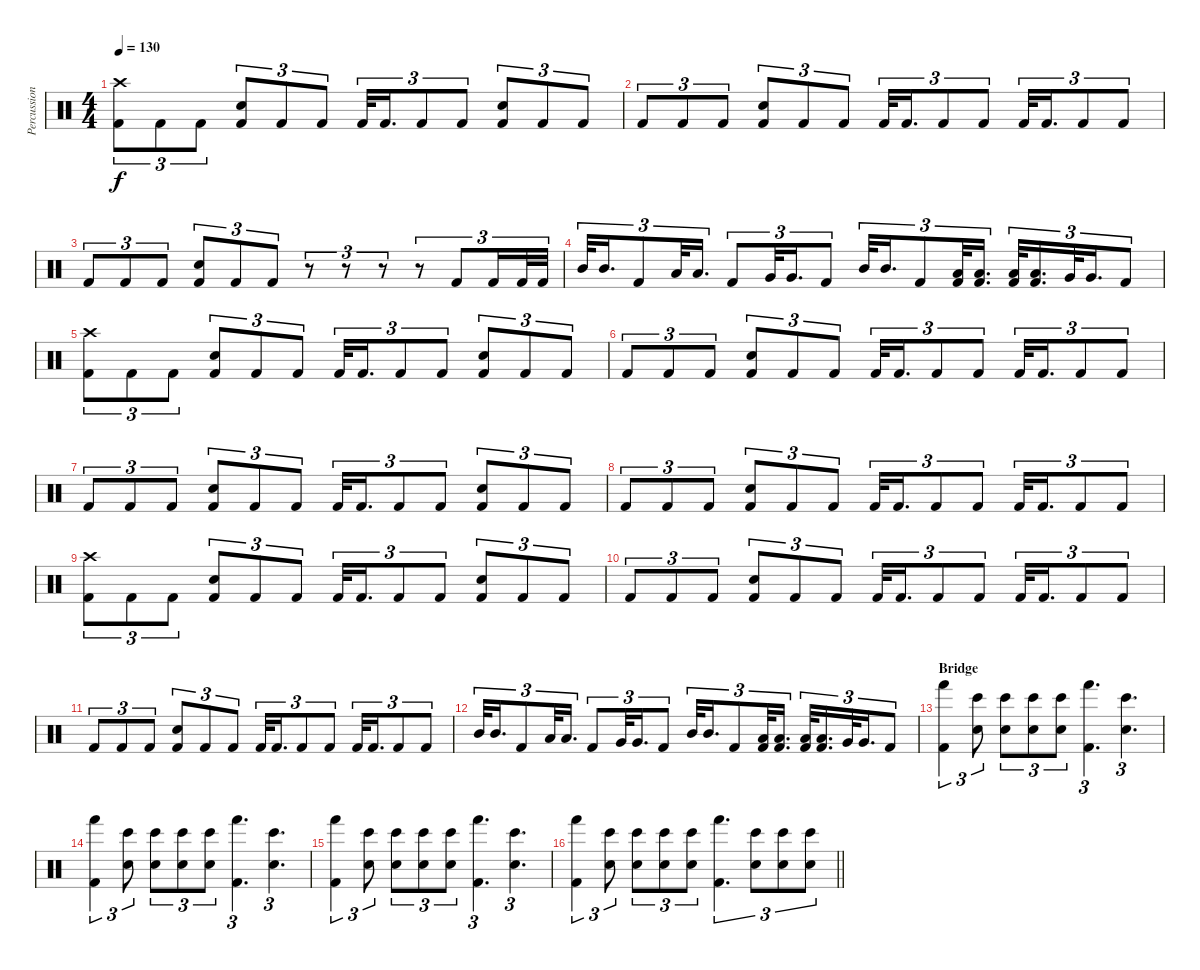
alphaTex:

\track ("Percussions" "Percussion") {instrument percussion}
\staff {score}
\articulation defaults
\ts (4 4)
\tempo 130
\clef neutral
\ks c
("Crash high (hit)" "Kick (hit) 2").8{tu (3 2) dy f} "Kick (hit) 2".8{tu (3 2)} "Kick (hit) 2".8{tu (3 2)} ("Electric Snare (hit)" "Kick (hit) 2").8{tu (3 2)} "Kick (hit) 2".8{tu (3 2)} "Kick (hit) 2".8{tu (3 2)} "Kick (hit) 2".32{tu (3 2)} "Kick (hit) 2".16{d tu (3 2)} "Kick (hit) 2".8{tu (3 2)} "Kick (hit) 2".8{tu (3 2)} ("Electric Snare (hit)" "Kick (hit) 2").8{tu (3 2)} "Kick (hit) 2".8{tu (3 2)} "Kick (hit) 2".8{tu (3 2)} |
"Kick (hit) 2".8{tu (3 2)} "Kick (hit) 2".8{tu (3 2)} "Kick (hit) 2".8{tu (3 2)} ("Electric Snare (hit)" "Kick (hit) 2").8{tu (3 2)} "Kick (hit) 2".8{tu (3 2)} "Kick (hit) 2".8{tu (3 2)} "Kick (hit) 2".32{tu (3 2)} "Kick (hit) 2".16{d tu (3 2)} "Kick (hit) 2".8{tu (3 2)} "Kick (hit) 2".8{tu (3 2)} "Kick (hit) 2".32{tu (3 2)} "Kick (hit) 2".16{d tu (3 2)} "Kick (hit) 2".8{tu (3 2)} "Kick (hit) 2".8{tu (3 2)} |
"Kick (hit) 2".8{tu (3 2)} "Kick (hit) 2".8{tu (3 2)} "Kick (hit) 2".8{tu (3 2)} ("Electric Snare (hit)" "Kick (hit) 2").8{tu (3 2)} "Kick (hit) 2".8{tu (3 2)} "Kick (hit) 2".8{tu (3 2)} r.8{tu (3 2)} r.8{tu (3 2)} r.8{tu (3 2)} r.8{tu (3 2)} "Kick (hit) 2".8{tu (3 2)} "Kick (hit) 2".16{tu (3 2)} "Kick (hit) 2".32{tu (3 2)} "Kick (hit) 2".32{tu (3 2)} |
"Mid Tom (hit)".32{tu (3 2)} "Mid Tom (hit)".16{d tu (3 2)} "Kick (hit) 2".8{tu (3 2)} "Low Tom (hit)".32{tu (3 2)} "Low Tom (hit)".16{d tu (3 2)} "Kick (hit) 2".8{tu (3 2)} "Very Low Tom (hit)".32{tu (3 2)} "Very Low Tom (hit)".16{d tu (3 2)} "Kick (hit) 2".8{tu (3 2)} "Mid Tom (hit)".32{tu (3 2)} "Mid Tom (hit)".16{d tu (3 2)} "Kick (hit) 2".8{tu (3 2)} ("Low Tom (hit)" "Kick (hit) 2").32{tu (3 2)} ("Low Tom (hit)" "Kick (hit) 2").16{d tu (3 2)} ("Low Tom (hit)" "Kick (hit) 2").32{tu (3 2)} ("Low Tom (hit)" "Kick (hit) 2").16{d tu (3 2)} "Very Low Tom (hit)".32{tu (3 2)} "Very Low Tom (hit)".16{d tu (3 2)} "Kick (hit) 2".8{tu (3 2)} |
("Crash high (hit)" "Kick (hit) 2").8{tu (3 2)} "Kick (hit) 2".8{tu (3 2)} "Kick (hit) 2".8{tu (3 2)} ("Electric Snare (hit)" "Kick (hit) 2").8{tu (3 2)} "Kick (hit) 2".8{tu (3 2)} "Kick (hit) 2".8{tu (3 2)} "Kick (hit) 2".32{tu (3 2)} "Kick (hit) 2".16{d tu (3 2)} "Kick (hit) 2".8{tu (3 2)} "Kick (hit) 2".8{tu (3 2)} ("Electric Snare (hit)" "Kick (hit) 2").8{tu (3 2)} "Kick (hit) 2".8{tu (3 2)} "Kick (hit) 2".8{tu (3 2)} |
"Kick (hit) 2".8{tu (3 2)} "Kick (hit) 2".8{tu (3 2)} "Kick (hit) 2".8{tu (3 2)} ("Electric Snare (hit)" "Kick (hit) 2").8{tu (3 2)} "Kick (hit) 2".8{tu (3 2)} "Kick (hit) 2".8{tu (3 2)} "Kick (hit) 2".32{tu (3 2)} "Kick (hit) 2".16{d tu (3 2)} "Kick (hit) 2".8{tu (3 2)} "Kick (hit) 2".8{tu (3 2)} "Kick (hit) 2".32{tu (3 2)} "Kick (hit) 2".16{d tu (3 2)} "Kick (hit) 2".8{tu (3 2)} "Kick (hit) 2".8{tu (3 2)} |
"Kick (hit) 2".8{tu (3 2)} "Kick (hit) 2".8{tu (3 2)} "Kick (hit) 2".8{tu (3 2)} ("Electric Snare (hit)" "Kick (hit) 2").8{tu (3 2)} "Kick (hit) 2".8{tu (3 2)} "Kick (hit) 2".8{tu (3 2)} "Kick (hit) 2".32{tu (3 2)} "Kick (hit) 2".16{d tu (3 2)} "Kick (hit) 2".8{tu (3 2)} "Kick (hit) 2".8{tu (3 2)} ("Electric Snare (hit)" "Kick (hit) 2").8{tu (3 2)} "Kick (hit) 2".8{tu (3 2)} "Kick (hit) 2".8{tu (3 2)} |
"Kick (hit) 2".8{tu (3 2)} "Kick (hit) 2".8{tu (3 2)} "Kick (hit) 2".8{tu (3 2)} ("Electric Snare (hit)" "Kick (hit) 2").8{tu (3 2)} "Kick (hit) 2".8{tu (3 2)} "Kick (hit) 2".8{tu (3 2)} "Kick (hit) 2".32{tu (3 2)} "Kick (hit) 2".16{d tu (3 2)} "Kick (hit) 2".8{tu (3 2)} "Kick (hit) 2".8{tu (3 2)} "Kick (hit) 2".32{tu (3 2)} "Kick (hit) 2".16{d tu (3 2)} "Kick (hit) 2".8{tu (3 2)} "Kick (hit) 2".8{tu (3 2)} |
("Crash high (hit)" "Kick (hit) 2").8{tu (3 2)} "Kick (hit) 2".8{tu (3 2)} "Kick (hit) 2".8{tu (3 2)} ("Electric Snare (hit)" "Kick (hit) 2").8{tu (3 2)} "Kick (hit) 2".8{tu (3 2)} "Kick (hit) 2".8{tu (3 2)} "Kick (hit) 2".32{tu (3 2)} "Kick (hit) 2".16{d tu (3 2)} "Kick (hit) 2".8{tu (3 2)} "Kick (hit) 2".8{tu (3 2)} ("Electric Snare (hit)" "Kick (hit) 2").8{tu (3 2)} "Kick (hit) 2".8{tu (3 2)} "Kick (hit) 2".8{tu (3 2)} |
"Kick (hit) 2".8{tu (3 2)} "Kick (hit) 2".8{tu (3 2)} "Kick (hit) 2".8{tu (3 2)} ("Electric Snare (hit)" "Kick (hit) 2").8{tu (3 2)} "Kick (hit) 2".8{tu (3 2)} "Kick (hit) 2".8{tu (3 2)} "Kick (hit) 2".32{tu (3 2)} "Kick (hit) 2".16{d tu (3 2)} "Kick (hit) 2".8{tu (3 2)} "Kick (hit) 2".8{tu (3 2)} "Kick (hit) 2".32{tu (3 2)} "Kick (hit) 2".16{d tu (3 2)} "Kick (hit) 2".8{tu (3 2)} "Kick (hit) 2".8{tu (3 2)} |
"Kick (hit) 2".8{tu (3 2)} "Kick (hit) 2".8{tu (3 2)} "Kick (hit) 2".8{tu (3 2)} ("Electric Snare (hit)" "Kick (hit) 2").8{tu (3 2)} "Kick (hit) 2".8{tu (3 2)} "Kick (hit) 2".8{tu (3 2)} "Kick (hit) 2".32{tu (3 2)} "Kick (hit) 2".16{d tu (3 2)} "Kick (hit) 2".8{tu (3 2)} "Kick (hit) 2".8{tu (3 2)} "Kick (hit) 2".32{tu (3 2)} "Kick (hit) 2".16{d tu (3 2)} "Kick (hit) 2".8{tu (3 2)} "Kick (hit) 2".8{tu (3 2)} |
"Mid Tom (hit)".32{tu (3 2)} "Mid Tom (hit)".16{d tu (3 2)} "Kick (hit) 2".8{tu (3 2)} "Low Tom (hit)".32{tu (3 2)} "Low Tom (hit)".16{d tu (3 2)} "Kick (hit) 2".8{tu (3 2)} "Very Low Tom (hit)".32{tu (3 2)} "Very Low Tom (hit)".16{d tu (3 2)} "Kick (hit) 2".8{tu (3 2)} "Mid Tom (hit)".32{tu (3 2)} "Mid Tom (hit)".16{d tu (3 2)} "Kick (hit) 2".8{tu (3 2)} ("Low Tom (hit)" "Kick (hit) 2").32{tu (3 2)} ("Low Tom (hit)" "Kick (hit) 2").16{d tu (3 2)} ("Low Tom (hit)" "Kick (hit) 2").32{tu (3 2)} ("Low Tom (hit)" "Kick (hit) 2").16{d tu (3 2)} "Very Low Tom (hit)".32{tu (3 2)} "Very Low Tom (hit)".16{d tu (3 2)} "Kick (hit) 2".8{tu (3 2)} |
\section ("" "Bridge")
("Hand (hit)" "Kick (hit) 2").4{tu (3 2)} ("Bongo High (hit)" "Electric Snare (hit)").8{tu (3 2)} ("Bongo High (hit)" "Electric Snare (hit)").8{tu (3 2)} ("Bongo High (hit)" "Electric Snare (hit)").8{tu (3 2)} ("Bongo High (hit)" "Electric Snare (hit)").8{tu (3 2)} ("Hand (hit)" "Kick (hit) 2").4{d tu (3 2)} ("Bongo High (hit)" "Electric Snare (hit)").4{d tu (3 2)} |
("Hand (hit)" "Kick (hit) 2").4{tu (3 2)} ("Bongo High (hit)" "Electric Snare (hit)").8{tu (3 2)} ("Bongo High (hit)" "Electric Snare (hit)").8{tu (3 2)} ("Bongo High (hit)" "Electric Snare (hit)").8{tu (3 2)} ("Bongo High (hit)" "Electric Snare (hit)").8{tu (3 2)} ("Hand (hit)" "Kick (hit) 2").4{d tu (3 2)} ("Bongo High (hit)" "Electric Snare (hit)").4{d tu (3 2)} |
("Hand (hit)" "Kick (hit) 2").4{tu (3 2)} ("Bongo High (hit)" "Electric Snare (hit)").8{tu (3 2)} ("Bongo High (hit)" "Electric Snare (hit)").8{tu (3 2)} ("Bongo High (hit)" "Electric Snare (hit)").8{tu (3 2)} ("Bongo High (hit)" "Electric Snare (hit)").8{tu (3 2)} ("Hand (hit)" "Kick (hit) 2").4{d tu (3 2)} ("Bongo High (hit)" "Electric Snare (hit)").4{d tu (3 2)} |
\barLineRight lightlight
("Hand (hit)" "Kick (hit) 2").4{tu (3 2)} ("Bongo High (hit)" "Electric Snare (hit)").8{tu (3 2)} ("Bongo High (hit)" "Electric Snare (hit)").8{tu (3 2)} ("Bongo High (hit)" "Electric Snare (hit)").8{tu (3 2)} ("Bongo High (hit)" "Electric Snare (hit)").8{tu (3 2)} ("Hand (hit)" "Kick (hit) 2").4{d tu (3 2)} ("Electric Snare (hit)" "Bongo High (hit)").8{tu (3 2)} ("Electric Snare (hit)" "Bongo High (hit)").8{tu (3 2)} ("Electric Snare (hit)" "Bongo High (hit)").8{tu (3 2)}
